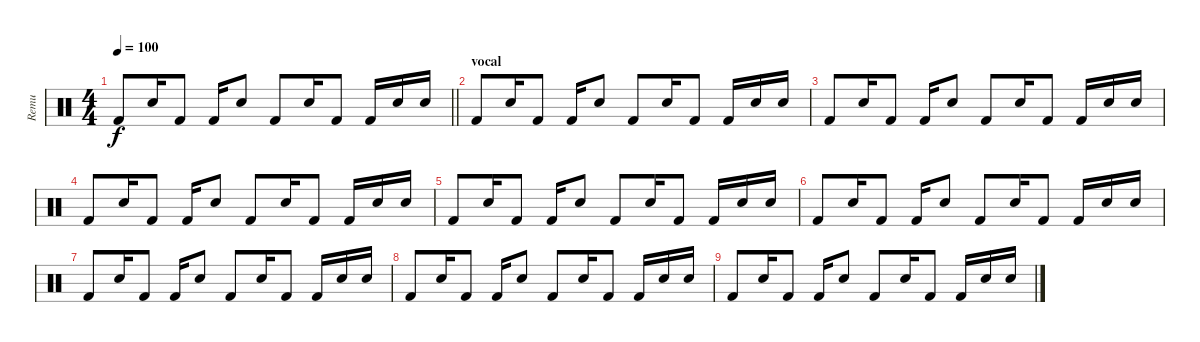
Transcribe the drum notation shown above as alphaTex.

\track ("Remu" "Remu") {instrument percussion}
\staff {score}
\articulation defaults
\ts (4 4)
\tempo 100
\clef neutral
\barLineRight lightlight
\ks c "Kick (hit) 2".8{dy f} "Snare (hit) 2".16 "Kick (hit) 2".8 "Kick (hit) 2".16 "Snare (hit) 2".8 "Kick (hit) 2".8 "Snare (hit) 2".16 "Kick (hit) 2".8 "Kick (hit) 2".16 "Snare (hit) 2".16 "Snare (hit) 2".16
|
\section ("" "vocal")
"Kick (hit) 2".8 "Snare (hit) 2".16 "Kick (hit) 2".8 "Kick (hit) 2".16 "Snare (hit) 2".8 "Kick (hit) 2".8 "Snare (hit) 2".16 "Kick (hit) 2".8 "Kick (hit) 2".16 "Snare (hit) 2".16 "Snare (hit) 2".16 |
"Kick (hit) 2".8 "Snare (hit) 2".16 "Kick (hit) 2".8 "Kick (hit) 2".16 "Snare (hit) 2".8 "Kick (hit) 2".8 "Snare (hit) 2".16 "Kick (hit) 2".8 "Kick (hit) 2".16 "Snare (hit) 2".16 "Snare (hit) 2".16 |
"Kick (hit) 2".8 "Snare (hit) 2".16 "Kick (hit) 2".8 "Kick (hit) 2".16 "Snare (hit) 2".8 "Kick (hit) 2".8 "Snare (hit) 2".16 "Kick (hit) 2".8 "Kick (hit) 2".16 "Snare (hit) 2".16 "Snare (hit) 2".16 |
"Kick (hit) 2".8 "Snare (hit) 2".16 "Kick (hit) 2".8 "Kick (hit) 2".16 "Snare (hit) 2".8 "Kick (hit) 2".8 "Snare (hit) 2".16 "Kick (hit) 2".8 "Kick (hit) 2".16 "Snare (hit) 2".16 "Snare (hit) 2".16 |
"Kick (hit) 2".8 "Snare (hit) 2".16 "Kick (hit) 2".8 "Kick (hit) 2".16 "Snare (hit) 2".8 "Kick (hit) 2".8 "Snare (hit) 2".16 "Kick (hit) 2".8 "Kick (hit) 2".16 "Snare (hit) 2".16 "Snare (hit) 2".16 |
"Kick (hit) 2".8 "Snare (hit) 2".16 "Kick (hit) 2".8 "Kick (hit) 2".16 "Snare (hit) 2".8 "Kick (hit) 2".8 "Snare (hit) 2".16 "Kick (hit) 2".8 "Kick (hit) 2".16 "Snare (hit) 2".16 "Snare (hit) 2".16 |
"Kick (hit) 2".8 "Snare (hit) 2".16 "Kick (hit) 2".8 "Kick (hit) 2".16 "Snare (hit) 2".8 "Kick (hit) 2".8 "Snare (hit) 2".16 "Kick (hit) 2".8 "Kick (hit) 2".16 "Snare (hit) 2".16 "Snare (hit) 2".16 |
"Kick (hit) 2".8 "Snare (hit) 2".16 "Kick (hit) 2".8 "Kick (hit) 2".16 "Snare (hit) 2".8 "Kick (hit) 2".8 "Snare (hit) 2".16 "Kick (hit) 2".8 "Kick (hit) 2".16 "Snare (hit) 2".16 "Snare (hit) 2".16
